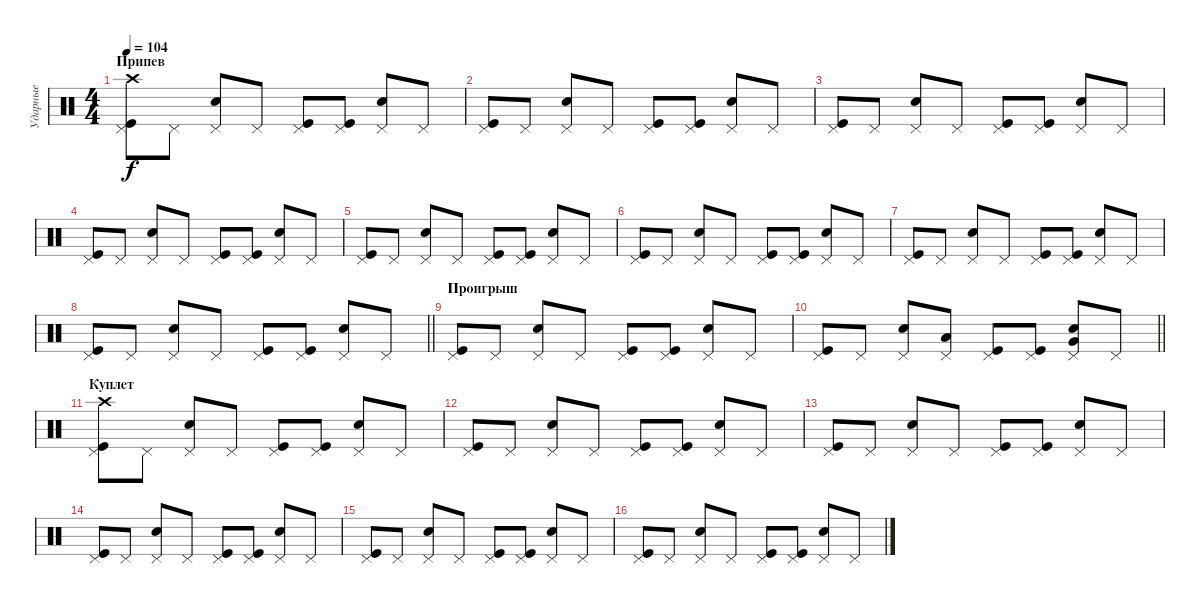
\track ("Ударные" "Ударные") {instrument percussion}
\staff {score}
\articulation defaults
\ts (4 4)
\section ("" "Припев")
\tempo 104
\clef neutral
\ks c
("Pedal Hi-Hat (hit)" "Kick (hit)" "Crash high (hit)").8{dy f} "Pedal Hi-Hat (hit)".8 ("Pedal Hi-Hat (hit)" "Snare (hit) 2").8 "Pedal Hi-Hat (hit)".8 ("Pedal Hi-Hat (hit)" "Kick (hit)").8 ("Pedal Hi-Hat (hit)" "Kick (hit)").8 ("Pedal Hi-Hat (hit)" "Snare (hit) 2").8 "Pedal Hi-Hat (hit)".8 |
("Pedal Hi-Hat (hit)" "Kick (hit)").8 "Pedal Hi-Hat (hit)".8 ("Pedal Hi-Hat (hit)" "Snare (hit) 2").8 "Pedal Hi-Hat (hit)".8 ("Pedal Hi-Hat (hit)" "Kick (hit)").8 ("Pedal Hi-Hat (hit)" "Kick (hit)").8 ("Pedal Hi-Hat (hit)" "Snare (hit) 2").8 "Pedal Hi-Hat (hit)".8 |
("Pedal Hi-Hat (hit)" "Kick (hit)").8 "Pedal Hi-Hat (hit)".8 ("Pedal Hi-Hat (hit)" "Snare (hit) 2").8 "Pedal Hi-Hat (hit)".8 ("Pedal Hi-Hat (hit)" "Kick (hit)").8 ("Pedal Hi-Hat (hit)" "Kick (hit)").8 ("Pedal Hi-Hat (hit)" "Snare (hit) 2").8 "Pedal Hi-Hat (hit)".8 |
("Pedal Hi-Hat (hit)" "Kick (hit)").8 "Pedal Hi-Hat (hit)".8 ("Pedal Hi-Hat (hit)" "Snare (hit) 2").8 "Pedal Hi-Hat (hit)".8 ("Pedal Hi-Hat (hit)" "Kick (hit)").8 ("Pedal Hi-Hat (hit)" "Kick (hit)").8 ("Pedal Hi-Hat (hit)" "Snare (hit) 2").8 "Pedal Hi-Hat (hit)".8 |
("Pedal Hi-Hat (hit)" "Kick (hit)").8 "Pedal Hi-Hat (hit)".8 ("Pedal Hi-Hat (hit)" "Snare (hit) 2").8 "Pedal Hi-Hat (hit)".8 ("Pedal Hi-Hat (hit)" "Kick (hit)").8 ("Pedal Hi-Hat (hit)" "Kick (hit)").8 ("Pedal Hi-Hat (hit)" "Snare (hit) 2").8 "Pedal Hi-Hat (hit)".8 |
("Pedal Hi-Hat (hit)" "Kick (hit)").8 "Pedal Hi-Hat (hit)".8 ("Pedal Hi-Hat (hit)" "Snare (hit) 2").8 "Pedal Hi-Hat (hit)".8 ("Pedal Hi-Hat (hit)" "Kick (hit)").8 ("Pedal Hi-Hat (hit)" "Kick (hit)").8 ("Pedal Hi-Hat (hit)" "Snare (hit) 2").8 "Pedal Hi-Hat (hit)".8 |
("Pedal Hi-Hat (hit)" "Kick (hit)").8 "Pedal Hi-Hat (hit)".8 ("Pedal Hi-Hat (hit)" "Snare (hit) 2").8 "Pedal Hi-Hat (hit)".8 ("Pedal Hi-Hat (hit)" "Kick (hit)").8 ("Pedal Hi-Hat (hit)" "Kick (hit)").8 ("Pedal Hi-Hat (hit)" "Snare (hit) 2").8 "Pedal Hi-Hat (hit)".8 |
\barLineRight lightlight
("Pedal Hi-Hat (hit)" "Kick (hit)").8 "Pedal Hi-Hat (hit)".8 ("Pedal Hi-Hat (hit)" "Snare (hit) 2").8 "Pedal Hi-Hat (hit)".8 ("Pedal Hi-Hat (hit)" "Kick (hit)").8 ("Pedal Hi-Hat (hit)" "Kick (hit)").8 ("Pedal Hi-Hat (hit)" "Snare (hit) 2").8 "Pedal Hi-Hat (hit)".8 |
\section ("" "Проигрыш")
("Pedal Hi-Hat (hit)" "Kick (hit)").8 "Pedal Hi-Hat (hit)".8 ("Pedal Hi-Hat (hit)" "Snare (hit) 2").8 "Pedal Hi-Hat (hit)".8 ("Pedal Hi-Hat (hit)" "Kick (hit)").8 ("Pedal Hi-Hat (hit)" "Kick (hit)").8 ("Pedal Hi-Hat (hit)" "Snare (hit) 2").8 "Pedal Hi-Hat (hit)".8 |
\barLineRight lightlight
("Pedal Hi-Hat (hit)" "Kick (hit)").8 "Pedal Hi-Hat (hit)".8 ("Pedal Hi-Hat (hit)" "Snare (hit) 2").8 ("Pedal Hi-Hat (hit)" "Low Floor Tom (hit)").8 ("Pedal Hi-Hat (hit)" "Kick (hit)").8 ("Pedal Hi-Hat (hit)" "Kick (hit)").8 ("Pedal Hi-Hat (hit)" "Snare (hit) 2" "Very Low Tom (hit)").8 "Pedal Hi-Hat (hit)".8 |
\section ("" "Куплет")
("Pedal Hi-Hat (hit)" "Kick (hit)" "Crash high (hit)").8 "Pedal Hi-Hat (hit)".8 ("Pedal Hi-Hat (hit)" "Snare (hit) 2").8 "Pedal Hi-Hat (hit)".8 ("Pedal Hi-Hat (hit)" "Kick (hit)").8 ("Pedal Hi-Hat (hit)" "Kick (hit)").8 ("Pedal Hi-Hat (hit)" "Snare (hit) 2").8 "Pedal Hi-Hat (hit)".8 |
("Pedal Hi-Hat (hit)" "Kick (hit)").8 "Pedal Hi-Hat (hit)".8 ("Pedal Hi-Hat (hit)" "Snare (hit) 2").8 "Pedal Hi-Hat (hit)".8 ("Pedal Hi-Hat (hit)" "Kick (hit)").8 ("Pedal Hi-Hat (hit)" "Kick (hit)").8 ("Pedal Hi-Hat (hit)" "Snare (hit) 2").8 "Pedal Hi-Hat (hit)".8 |
("Pedal Hi-Hat (hit)" "Kick (hit)").8 "Pedal Hi-Hat (hit)".8 ("Pedal Hi-Hat (hit)" "Snare (hit) 2").8 "Pedal Hi-Hat (hit)".8 ("Pedal Hi-Hat (hit)" "Kick (hit)").8 ("Pedal Hi-Hat (hit)" "Kick (hit)").8 ("Pedal Hi-Hat (hit)" "Snare (hit) 2").8 "Pedal Hi-Hat (hit)".8 |
("Pedal Hi-Hat (hit)" "Kick (hit)").8 "Pedal Hi-Hat (hit)".8 ("Pedal Hi-Hat (hit)" "Snare (hit) 2").8 "Pedal Hi-Hat (hit)".8 ("Pedal Hi-Hat (hit)" "Kick (hit)").8 ("Pedal Hi-Hat (hit)" "Kick (hit)").8 ("Pedal Hi-Hat (hit)" "Snare (hit) 2").8 "Pedal Hi-Hat (hit)".8 |
("Pedal Hi-Hat (hit)" "Kick (hit)").8 "Pedal Hi-Hat (hit)".8 ("Pedal Hi-Hat (hit)" "Snare (hit) 2").8 "Pedal Hi-Hat (hit)".8 ("Pedal Hi-Hat (hit)" "Kick (hit)").8 ("Pedal Hi-Hat (hit)" "Kick (hit)").8 ("Pedal Hi-Hat (hit)" "Snare (hit) 2").8 "Pedal Hi-Hat (hit)".8 |
("Pedal Hi-Hat (hit)" "Kick (hit)").8 "Pedal Hi-Hat (hit)".8 ("Pedal Hi-Hat (hit)" "Snare (hit) 2").8 "Pedal Hi-Hat (hit)".8 ("Pedal Hi-Hat (hit)" "Kick (hit)").8 ("Pedal Hi-Hat (hit)" "Kick (hit)").8 ("Pedal Hi-Hat (hit)" "Snare (hit) 2").8 "Pedal Hi-Hat (hit)".8
